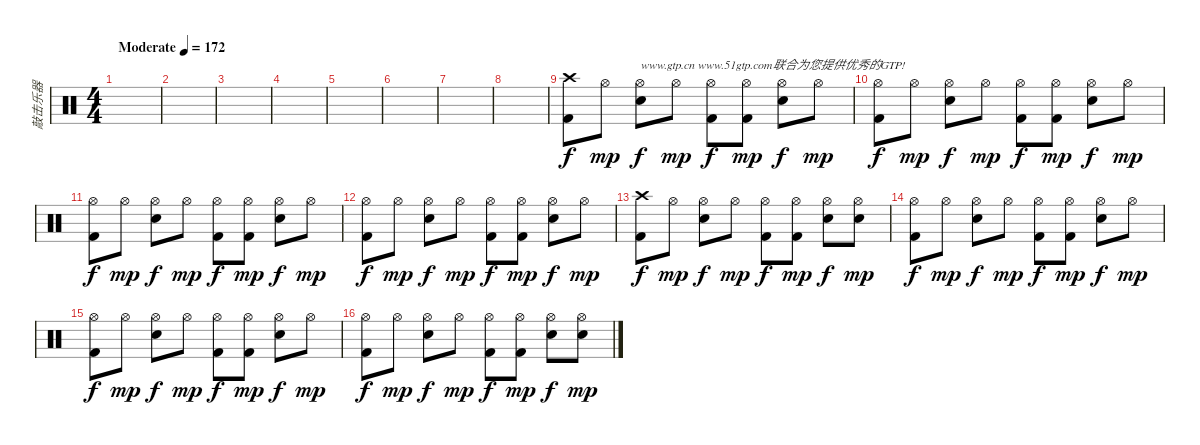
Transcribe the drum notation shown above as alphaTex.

\track ("敲击乐器" "敲击乐器") {instrument percussion}
\staff {score}
\articulation defaults
\ts (4 4)
\tempo (172 "Moderate")
\clef neutral
\ks c
|
|
|
|
|
|
|
|
("Crash high (hit)" "Kick (hit) 2").8{volume 16} "Hi-Hat (open)".8{dy mp} ("Hi-Hat (open)" "Electric Snare (hit)").8{txt "www.gtp.cn www.51gtp.com联合为您提供优秀的GTP!" dy f} "Hi-Hat (open)".8{dy mp} ("Hi-Hat (open)" "Kick (hit) 2").8{dy f} ("Hi-Hat (open)" "Kick (hit) 2").8{dy mp} ("Hi-Hat (open)" "Electric Snare (hit)").8{dy f} "Hi-Hat (open)".8{dy mp} |
("Hi-Hat (open)" "Kick (hit) 2").8{dy f} "Hi-Hat (open)".8{dy mp} ("Hi-Hat (open)" "Electric Snare (hit)").8{dy f} "Hi-Hat (open)".8{dy mp} ("Hi-Hat (open)" "Kick (hit) 2").8{dy f} ("Hi-Hat (open)" "Kick (hit) 2").8{dy mp} ("Hi-Hat (open)" "Electric Snare (hit)").8{dy f} "Hi-Hat (open)".8{dy mp} |
("Hi-Hat (open)" "Kick (hit) 2").8{dy f} "Hi-Hat (open)".8{dy mp} ("Hi-Hat (open)" "Electric Snare (hit)").8{dy f} "Hi-Hat (open)".8{dy mp} ("Hi-Hat (open)" "Kick (hit) 2").8{dy f} ("Hi-Hat (open)" "Kick (hit) 2").8{dy mp} ("Hi-Hat (open)" "Electric Snare (hit)").8{dy f} "Hi-Hat (open)".8{dy mp} |
("Hi-Hat (open)" "Kick (hit) 2").8{dy f} "Hi-Hat (open)".8{dy mp} ("Hi-Hat (open)" "Electric Snare (hit)").8{dy f} "Hi-Hat (open)".8{dy mp} ("Hi-Hat (open)" "Kick (hit) 2").8{dy f} ("Hi-Hat (open)" "Kick (hit) 2").8{dy mp} ("Hi-Hat (open)" "Electric Snare (hit)").8{dy f} "Hi-Hat (open)".8{dy mp} |
("Crash high (hit)" "Kick (hit) 2").8{dy f} "Hi-Hat (open)".8{dy mp} ("Hi-Hat (open)" "Electric Snare (hit)").8{dy f} "Hi-Hat (open)".8{dy mp} ("Hi-Hat (open)" "Kick (hit) 2").8{dy f} ("Hi-Hat (open)" "Kick (hit) 2").8{dy mp} ("Hi-Hat (open)" "Electric Snare (hit)").8{dy f} ("Hi-Hat (open)" "Electric Snare (hit)").8{dy mp} |
("Hi-Hat (open)" "Kick (hit) 2").8{dy f} "Hi-Hat (open)".8{dy mp} ("Hi-Hat (open)" "Electric Snare (hit)").8{dy f} "Hi-Hat (open)".8{dy mp} ("Hi-Hat (open)" "Kick (hit) 2").8{dy f} ("Hi-Hat (open)" "Kick (hit) 2").8{dy mp} ("Hi-Hat (open)" "Electric Snare (hit)").8{dy f} "Hi-Hat (open)".8{dy mp} |
("Hi-Hat (open)" "Kick (hit) 2").8{dy f} "Hi-Hat (open)".8{dy mp} ("Hi-Hat (open)" "Electric Snare (hit)").8{dy f} "Hi-Hat (open)".8{dy mp} ("Hi-Hat (open)" "Kick (hit) 2").8{dy f} ("Hi-Hat (open)" "Kick (hit) 2").8{dy mp} ("Hi-Hat (open)" "Electric Snare (hit)").8{dy f} "Hi-Hat (open)".8{dy mp} |
("Hi-Hat (open)" "Kick (hit) 2").8{dy f} "Hi-Hat (open)".8{dy mp} ("Hi-Hat (open)" "Electric Snare (hit)").8{dy f} "Hi-Hat (open)".8{dy mp} ("Hi-Hat (open)" "Kick (hit) 2").8{dy f} ("Hi-Hat (open)" "Kick (hit) 2").8{dy mp} ("Hi-Hat (open)" "Electric Snare (hit)").8{dy f} ("Hi-Hat (open)" "Electric Snare (hit)").8{dy mp}
